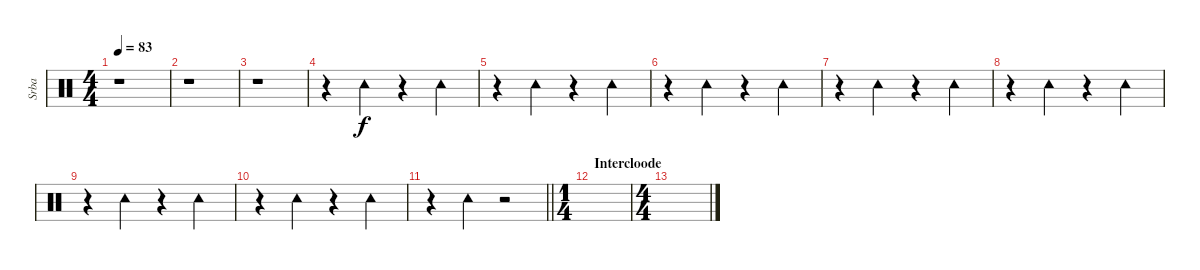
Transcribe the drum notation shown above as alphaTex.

\track ("Srba" "Srba") {instrument percussion}
\staff {score}
\articulation defaults
\ts (4 4)
\tempo 83
\clef neutral
\ks c
r.1{dy f} |
r.1 |
r.1 |
r.4 "Tambourine (hit)".4 r.4 "Tambourine (hit)".4 |
r.4 "Tambourine (hit)".4 r.4 "Tambourine (hit)".4 |
r.4 "Tambourine (hit)".4 r.4 "Tambourine (hit)".4 |
r.4 "Tambourine (hit)".4 r.4 "Tambourine (hit)".4 |
r.4 "Tambourine (hit)".4 r.4 "Tambourine (hit)".4 |
r.4 "Tambourine (hit)".4 r.4 "Tambourine (hit)".4 |
r.4 "Tambourine (hit)".4 r.4 "Tambourine (hit)".4 |
\barLineRight lightlight
r.4 "Tambourine (hit)".4 r.2 |
\ts (1 4)
\section ("" "Intercloode")
|
\ts (4 4)
